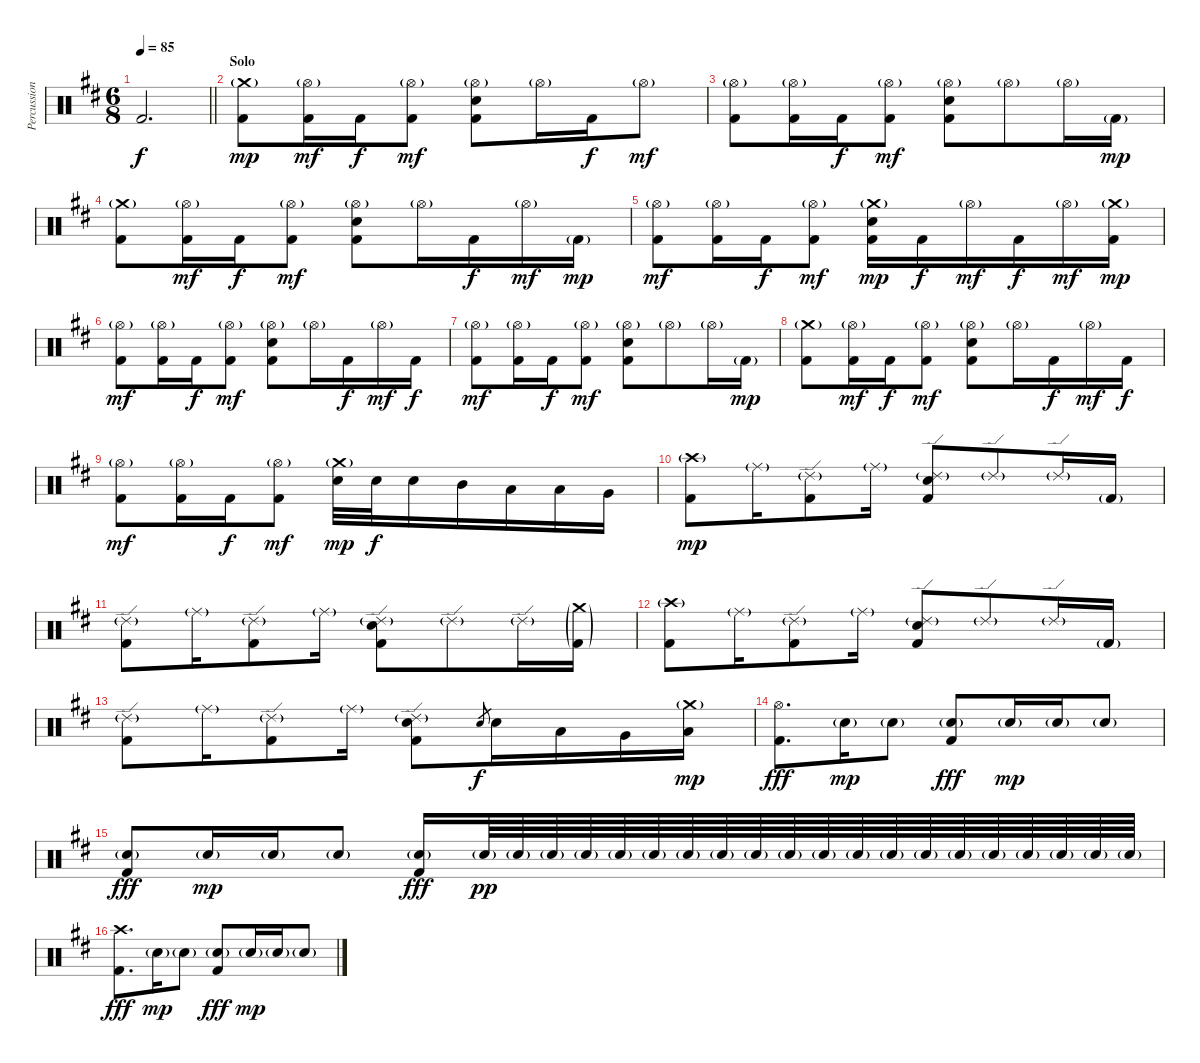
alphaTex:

\track ("Percussion (Daniele Carbonera)" "Percussion") {instrument percussion}
\staff {score}
\articulation defaults
\ts (6 8)
\tempo 85
\clef neutral
\barLineRight lightlight
\ks d "Kick (hit) 2".2{d dy f}
|
\section ("" "Solo")
("Crash medium (hit)"{g} "Kick (hit) 2").8{dy mp} ("Hi-Hat (open)"{g} "Kick (hit) 2").16{dy mf} "Kick (hit) 2".16{dy f} ("Hi-Hat (open)"{g} "Kick (hit) 2").8{dy mf} ("Hi-Hat (open)"{g} "Electric Snare (hit)" "Kick (hit) 2").8 "Hi-Hat (open)"{g}.16 "Kick (hit) 2".16{dy f} "Hi-Hat (open)"{g}.8{dy mf} |
("Hi-Hat (open)"{g} "Kick (hit) 2").8 ("Hi-Hat (open)"{g} "Kick (hit) 2").16 "Kick (hit) 2".16{dy f} ("Hi-Hat (open)"{g} "Kick (hit) 2").8{dy mf} ("Hi-Hat (open)"{g} "Electric Snare (hit)" "Kick (hit) 2").8 "Hi-Hat (open)"{g}.8 "Hi-Hat (open)"{g}.16 "Kick (hit) 2"{g}.16{dy mp} |
("Crash medium (hit)"{g} "Kick (hit) 2").8 ("Hi-Hat (open)"{g} "Kick (hit) 2").16{dy mf} "Kick (hit) 2".16{dy f} ("Hi-Hat (open)"{g} "Kick (hit) 2").8{dy mf} ("Hi-Hat (open)"{g} "Electric Snare (hit)" "Kick (hit) 2").8 "Hi-Hat (open)"{g}.16 "Kick (hit) 2".16{dy f} "Hi-Hat (open)"{g}.16{dy mf} "Kick (hit) 2"{g}.16{dy mp} |
("Hi-Hat (open)"{g} "Kick (hit) 2").8{dy mf} ("Hi-Hat (open)"{g} "Kick (hit) 2").16 "Kick (hit) 2".16{dy f} ("Hi-Hat (open)"{g} "Kick (hit) 2").8{dy mf} ("Crash medium (hit)"{g} "Electric Snare (hit)" "Kick (hit) 2").16{dy mp} "Kick (hit) 2".16{dy f} "Hi-Hat (open)"{g}.16{dy mf} "Kick (hit) 2".16{dy f} "Hi-Hat (open)"{g}.16{dy mf} ("Crash medium (hit)"{g} "Kick (hit) 2").16{dy mp} |
("Hi-Hat (open)"{g} "Kick (hit) 2").8{dy mf} ("Hi-Hat (open)"{g} "Kick (hit) 2").16 "Kick (hit) 2".16{dy f} ("Hi-Hat (open)"{g} "Kick (hit) 2").8{dy mf} ("Hi-Hat (open)"{g} "Electric Snare (hit)" "Kick (hit) 2").8 "Hi-Hat (open)"{g}.16 "Kick (hit) 2".16{dy f} "Hi-Hat (open)"{g}.16{dy mf} "Kick (hit) 2".16{dy f} |
("Hi-Hat (open)"{g} "Kick (hit) 2").8{dy mf} ("Hi-Hat (open)"{g} "Kick (hit) 2").16 "Kick (hit) 2".16{dy f} ("Hi-Hat (open)"{g} "Kick (hit) 2").8{dy mf} ("Hi-Hat (open)"{g} "Electric Snare (hit)" "Kick (hit) 2").8 "Hi-Hat (open)"{g}.8 "Hi-Hat (open)"{g}.16 "Kick (hit) 2"{g}.16{dy mp} |
("Crash medium (hit)"{g} "Kick (hit) 2").8 ("Hi-Hat (open)"{g} "Kick (hit) 2").16{dy mf} "Kick (hit) 2".16{dy f} ("Hi-Hat (open)"{g} "Kick (hit) 2").8{dy mf} ("Hi-Hat (open)"{g} "Electric Snare (hit)" "Kick (hit) 2").8 "Hi-Hat (open)"{g}.16 "Kick (hit) 2".16{dy f} "Hi-Hat (open)"{g}.16{dy mf} "Kick (hit) 2".16{dy f} |
("Hi-Hat (open)"{g} "Kick (hit) 2").8{dy mf} ("Hi-Hat (open)"{g} "Kick (hit) 2").16 "Kick (hit) 2".16{dy f} ("Hi-Hat (open)"{g} "Kick (hit) 2").8{dy mf} ("Crash medium (hit)"{g} "Electric Snare (hit)").32{dy mp} "Electric Snare (hit)".32{dy f} "Electric Snare (hit)".16 "Mid Tom (hit)".16 "Low Tom (hit)".16 "Low Tom (hit)".16 "Very Low Tom (hit)".16 |
("Crash high (hit)"{g} "Kick (hit) 2").8{dy mp} "Ride (middle)"{g}.16 ("Ride (edge) 2"{g} "Kick (hit) 2").8 "Ride (middle)"{g}.16 ("Ride (edge) 2"{g} "Electric Snare (hit)" "Kick (hit) 2").8 "Ride (edge) 2"{g}.8 "Ride (edge) 2"{g}.16 "Kick (hit) 2"{g}.16 |
("Ride (edge) 2"{g} "Kick (hit) 2").8 "Ride (middle)"{g}.16 ("Ride (edge) 2"{g} "Kick (hit) 2").8 "Ride (middle)"{g}.16 ("Ride (edge) 2"{g} "Electric Snare (hit)" "Kick (hit) 2").8 "Ride (edge) 2"{g}.8 "Ride (edge) 2"{g}.16 ("Crash medium (hit)"{g} "Kick (hit) 2"{g}).16 |
("Crash high (hit)"{g} "Kick (hit) 2").8 "Ride (middle)"{g}.16 ("Ride (edge) 2"{g} "Kick (hit) 2").8 "Ride (middle)"{g}.16 ("Ride (edge) 2"{g} "Electric Snare (hit)" "Kick (hit) 2").8 "Ride (edge) 2"{g}.8 "Ride (edge) 2"{g}.16 "Kick (hit) 2"{g}.16 |
("Ride (edge) 2"{g} "Kick (hit) 2").8 "Ride (middle)"{g}.16 ("Ride (edge) 2"{g} "Kick (hit) 2").8 "Ride (middle)"{g}.16 ("Ride (edge) 2"{g} "Electric Snare (hit)" "Kick (hit) 2").8 "Electric Snare (hit)".8{gr dy f} "Electric Snare (hit)".16 "Low Tom (hit)".16 "Very Low Tom (hit)".16 ("Crash medium (hit)"{g} "Low Floor Tom (hit)").16{dy mp} |
("Hi-Hat (open)" "Kick (hit) 2").8{d dy fff} "Snare (hit) 2"{g}.16{dy mp} "Snare (hit) 2"{g}.8 ("Snare (hit) 2"{g} "Kick (hit) 2").8{dy fff} "Snare (hit) 2"{g}.16{dy mp} "Snare (hit) 2"{g}.16 "Snare (hit) 2"{g}.8 |
("Snare (hit) 2"{g} "Kick (hit) 2").8{dy fff} "Snare (hit) 2"{g}.16{dy mp} "Snare (hit) 2"{g}.16 "Snare (hit) 2"{g}.8 ("Snare (hit) 2"{g} "Kick (hit) 2").16{dy fff} "Snare (hit) 2"{g}.64{dy pp} "Snare (hit) 2"{g}.64 "Snare (hit) 2"{g}.64 "Snare (hit) 2"{g}.64 "Snare (hit) 2"{g}.64 "Snare (hit) 2"{g}.64 "Snare (hit) 2"{g}.64 "Snare (hit) 2"{g}.64 "Snare (hit) 2"{g}.64 "Snare (hit) 2"{g}.64 "Snare (hit) 2"{g}.64 "Snare (hit) 2"{g}.64 "Snare (hit) 2"{g}.64 "Snare (hit) 2"{g}.64 "Snare (hit) 2"{g}.64 "Snare (hit) 2"{g}.64 "Snare (hit) 2"{g}.64 "Snare (hit) 2"{g}.64 "Snare (hit) 2"{g}.64 "Snare (hit) 2"{g}.64 |
("Crash high (hit)" "Kick (hit) 2").8{d dy fff} "Snare (hit) 2"{g}.16{dy mp} "Snare (hit) 2"{g}.8 ("Snare (hit) 2"{g} "Kick (hit) 2").8{dy fff} "Snare (hit) 2"{g}.16{dy mp} "Snare (hit) 2"{g}.16 "Snare (hit) 2"{g}.8
